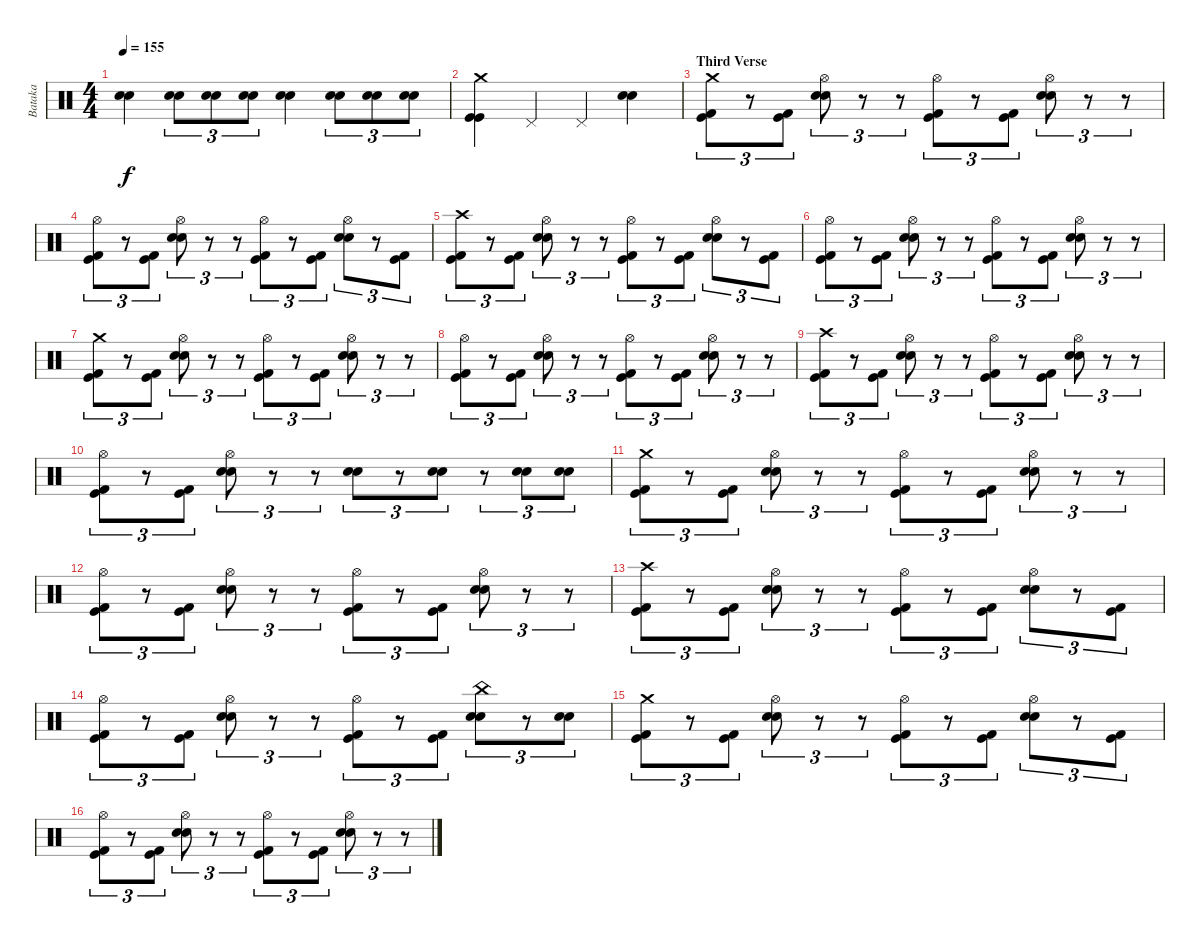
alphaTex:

\track ("Bataka" "Bataka") {instrument percussion}
\staff {score}
\articulation defaults
\ts (4 4)
\tempo 155
\clef neutral
\ks c
("Snare (hit) 2" "Snare (hit) 2").4{dy f} ("Snare (hit) 2" "Snare (hit) 2").8{tu (3 2)} ("Snare (hit) 2" "Snare (hit) 2").8{tu (3 2)} ("Snare (hit) 2" "Snare (hit) 2").8{tu (3 2)} ("Snare (hit) 2" "Snare (hit) 2").4 ("Snare (hit) 2" "Snare (hit) 2").8{tu (3 2)} ("Snare (hit) 2" "Snare (hit) 2").8{tu (3 2)} ("Snare (hit) 2" "Snare (hit) 2").8{tu (3 2)} |
("Crash medium (hit)" "Kick (hit)" "Kick (hit)").4 "Pedal Hi-Hat (hit)".4 "Pedal Hi-Hat (hit)".4 ("Snare (hit) 2" "Snare (hit) 2").4 |
\section ("" "Third Verse")
("Crash medium (hit)" "Kick (hit) 2" "Kick (hit)").8{tu (3 2)} r.8{tu (3 2)} ("Kick (hit) 2" "Kick (hit)").8{tu (3 2)} ("Hi-Hat (open)" "Snare (hit) 2" "Snare (hit) 2").8{tu (3 2)} r.8{tu (3 2)} r.8{tu (3 2)} ("Hi-Hat (open)" "Kick (hit) 2" "Kick (hit)").8{tu (3 2)} r.8{tu (3 2)} ("Kick (hit) 2" "Kick (hit)").8{tu (3 2)} ("Hi-Hat (open)" "Snare (hit) 2" "Snare (hit) 2").8{tu (3 2)} r.8{tu (3 2)} r.8{tu (3 2)} |
("Hi-Hat (open)" "Kick (hit) 2" "Kick (hit)").8{tu (3 2)} r.8{tu (3 2)} ("Kick (hit) 2" "Kick (hit)").8{tu (3 2)} ("Hi-Hat (open)" "Snare (hit) 2" "Snare (hit) 2").8{tu (3 2)} r.8{tu (3 2)} r.8{tu (3 2)} ("Hi-Hat (open)" "Kick (hit) 2" "Kick (hit)").8{tu (3 2)} r.8{tu (3 2)} ("Kick (hit) 2" "Kick (hit)").8{tu (3 2)} ("Hi-Hat (open)" "Snare (hit) 2" "Snare (hit) 2").8{tu (3 2)} r.8{tu (3 2)} ("Kick (hit) 2" "Kick (hit)").8{tu (3 2)} |
("Crash high (hit)" "Kick (hit) 2" "Kick (hit)").8{tu (3 2)} r.8{tu (3 2)} ("Kick (hit) 2" "Kick (hit)").8{tu (3 2)} ("Hi-Hat (open)" "Snare (hit) 2" "Snare (hit) 2").8{tu (3 2)} r.8{tu (3 2)} r.8{tu (3 2)} ("Hi-Hat (open)" "Kick (hit) 2" "Kick (hit)").8{tu (3 2)} r.8{tu (3 2)} ("Kick (hit) 2" "Kick (hit)").8{tu (3 2)} ("Hi-Hat (open)" "Snare (hit) 2" "Snare (hit) 2").8{tu (3 2)} r.8{tu (3 2)} ("Kick (hit) 2" "Kick (hit)").8{tu (3 2)} |
("Hi-Hat (open)" "Kick (hit) 2" "Kick (hit)").8{tu (3 2)} r.8{tu (3 2)} ("Kick (hit) 2" "Kick (hit)").8{tu (3 2)} ("Hi-Hat (open)" "Snare (hit) 2" "Snare (hit) 2").8{tu (3 2)} r.8{tu (3 2)} r.8{tu (3 2)} ("Hi-Hat (open)" "Kick (hit) 2" "Kick (hit)").8{tu (3 2)} r.8{tu (3 2)} ("Kick (hit) 2" "Kick (hit)").8{tu (3 2)} ("Hi-Hat (open)" "Snare (hit) 2" "Snare (hit) 2").8{tu (3 2)} r.8{tu (3 2)} r.8{tu (3 2)} |
("Crash medium (hit)" "Kick (hit) 2" "Kick (hit)").8{tu (3 2)} r.8{tu (3 2)} ("Kick (hit) 2" "Kick (hit)").8{tu (3 2)} ("Hi-Hat (open)" "Snare (hit) 2" "Snare (hit) 2").8{tu (3 2)} r.8{tu (3 2)} r.8{tu (3 2)} ("Hi-Hat (open)" "Kick (hit) 2" "Kick (hit)").8{tu (3 2)} r.8{tu (3 2)} ("Kick (hit) 2" "Kick (hit)").8{tu (3 2)} ("Hi-Hat (open)" "Snare (hit) 2" "Snare (hit) 2").8{tu (3 2)} r.8{tu (3 2)} r.8{tu (3 2)} |
("Hi-Hat (open)" "Kick (hit) 2" "Kick (hit)").8{tu (3 2)} r.8{tu (3 2)} ("Kick (hit) 2" "Kick (hit)").8{tu (3 2)} ("Hi-Hat (open)" "Snare (hit) 2" "Snare (hit) 2").8{tu (3 2)} r.8{tu (3 2)} r.8{tu (3 2)} ("Hi-Hat (open)" "Kick (hit) 2" "Kick (hit)").8{tu (3 2)} r.8{tu (3 2)} ("Kick (hit) 2" "Kick (hit)").8{tu (3 2)} ("Hi-Hat (open)" "Snare (hit) 2" "Snare (hit) 2").8{tu (3 2)} r.8{tu (3 2)} r.8{tu (3 2)} |
("Crash high (hit)" "Kick (hit) 2" "Kick (hit)").8{tu (3 2)} r.8{tu (3 2)} ("Kick (hit) 2" "Kick (hit)").8{tu (3 2)} ("Hi-Hat (open)" "Snare (hit) 2" "Snare (hit) 2").8{tu (3 2)} r.8{tu (3 2)} r.8{tu (3 2)} ("Hi-Hat (open)" "Kick (hit) 2" "Kick (hit)").8{tu (3 2)} r.8{tu (3 2)} ("Kick (hit) 2" "Kick (hit)").8{tu (3 2)} ("Hi-Hat (open)" "Snare (hit) 2" "Snare (hit) 2").8{tu (3 2)} r.8{tu (3 2)} r.8{tu (3 2)} |
("Hi-Hat (open)" "Kick (hit) 2" "Kick (hit)").8{tu (3 2)} r.8{tu (3 2)} ("Kick (hit) 2" "Kick (hit)").8{tu (3 2)} ("Hi-Hat (open)" "Snare (hit) 2" "Snare (hit) 2").8{tu (3 2)} r.8{tu (3 2)} r.8{tu (3 2)} ("Snare (hit) 2" "Snare (hit) 2").8{tu (3 2)} r.8{tu (3 2)} ("Snare (hit) 2" "Snare (hit) 2").8{tu (3 2)} r.8{tu (3 2)} ("Snare (hit) 2" "Snare (hit) 2").8{tu (3 2)} ("Snare (hit) 2" "Snare (hit) 2").8{tu (3 2)} |
("Crash medium (hit)" "Kick (hit) 2" "Kick (hit)").8{tu (3 2)} r.8{tu (3 2)} ("Kick (hit) 2" "Kick (hit)").8{tu (3 2)} ("Hi-Hat (open)" "Snare (hit) 2" "Snare (hit) 2").8{tu (3 2)} r.8{tu (3 2)} r.8{tu (3 2)} ("Hi-Hat (open)" "Kick (hit) 2" "Kick (hit)").8{tu (3 2)} r.8{tu (3 2)} ("Kick (hit) 2" "Kick (hit)").8{tu (3 2)} ("Hi-Hat (open)" "Snare (hit) 2" "Snare (hit) 2").8{tu (3 2)} r.8{tu (3 2)} r.8{tu (3 2)} |
("Hi-Hat (open)" "Kick (hit) 2" "Kick (hit)").8{tu (3 2)} r.8{tu (3 2)} ("Kick (hit) 2" "Kick (hit)").8{tu (3 2)} ("Hi-Hat (open)" "Snare (hit) 2" "Snare (hit) 2").8{tu (3 2)} r.8{tu (3 2)} r.8{tu (3 2)} ("Hi-Hat (open)" "Kick (hit) 2" "Kick (hit)").8{tu (3 2)} r.8{tu (3 2)} ("Kick (hit) 2" "Kick (hit)").8{tu (3 2)} ("Hi-Hat (open)" "Snare (hit) 2" "Snare (hit) 2").8{tu (3 2)} r.8{tu (3 2)} r.8{tu (3 2)} |
("Crash high (hit)" "Kick (hit) 2" "Kick (hit)").8{tu (3 2)} r.8{tu (3 2)} ("Kick (hit) 2" "Kick (hit)").8{tu (3 2)} ("Hi-Hat (open)" "Snare (hit) 2" "Snare (hit) 2").8{tu (3 2)} r.8{tu (3 2)} r.8{tu (3 2)} ("Hi-Hat (open)" "Kick (hit) 2" "Kick (hit)").8{tu (3 2)} r.8{tu (3 2)} ("Kick (hit) 2" "Kick (hit)").8{tu (3 2)} ("Hi-Hat (open)" "Snare (hit) 2" "Snare (hit) 2").8{tu (3 2)} r.8{tu (3 2)} ("Kick (hit) 2" "Kick (hit)").8{tu (3 2)} |
("Hi-Hat (open)" "Kick (hit) 2" "Kick (hit)").8{tu (3 2)} r.8{tu (3 2)} ("Kick (hit) 2" "Kick (hit)").8{tu (3 2)} ("Hi-Hat (open)" "Snare (hit) 2" "Snare (hit) 2").8{tu (3 2)} r.8{tu (3 2)} r.8{tu (3 2)} ("Hi-Hat (open)" "Kick (hit) 2" "Kick (hit)").8{tu (3 2)} r.8{tu (3 2)} ("Kick (hit) 2" "Kick (hit)").8{tu (3 2)} ("China (hit)" "Snare (hit) 2" "Snare (hit) 2").8{tu (3 2)} r.8{tu (3 2)} ("Snare (hit) 2" "Snare (hit) 2").8{tu (3 2)} |
("Crash medium (hit)" "Kick (hit) 2" "Kick (hit)").8{tu (3 2)} r.8{tu (3 2)} ("Kick (hit) 2" "Kick (hit)").8{tu (3 2)} ("Hi-Hat (open)" "Snare (hit) 2" "Snare (hit) 2").8{tu (3 2)} r.8{tu (3 2)} r.8{tu (3 2)} ("Hi-Hat (open)" "Kick (hit) 2" "Kick (hit)").8{tu (3 2)} r.8{tu (3 2)} ("Kick (hit) 2" "Kick (hit)").8{tu (3 2)} ("Hi-Hat (open)" "Snare (hit) 2" "Snare (hit) 2").8{tu (3 2)} r.8{tu (3 2)} ("Kick (hit) 2" "Kick (hit)").8{tu (3 2)} |
("Hi-Hat (open)" "Kick (hit) 2" "Kick (hit)").8{tu (3 2)} r.8{tu (3 2)} ("Kick (hit) 2" "Kick (hit)").8{tu (3 2)} ("Hi-Hat (open)" "Snare (hit) 2" "Snare (hit) 2").8{tu (3 2)} r.8{tu (3 2)} r.8{tu (3 2)} ("Hi-Hat (open)" "Kick (hit) 2" "Kick (hit)").8{tu (3 2)} r.8{tu (3 2)} ("Kick (hit) 2" "Kick (hit)").8{tu (3 2)} ("Hi-Hat (open)" "Snare (hit) 2" "Snare (hit) 2").8{tu (3 2)} r.8{tu (3 2)} r.8{tu (3 2)}
